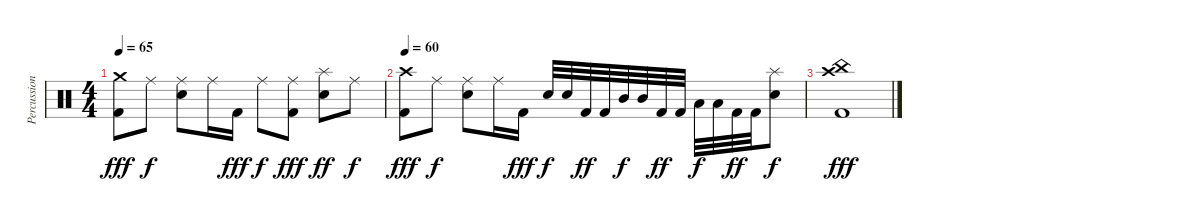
\track ("Percussion" "Percussion") {instrument percussion}
\staff {score}
\articulation defaults
\ts (4 4)
\tempo 65
\clef neutral
\ks c
("Crash medium (hit)" "Kick (hit) 2").8{dy fff} "Ride (middle)".8{dy f} ("Ride (middle)" "Electric Snare (hit)").8 "Ride (middle)".16 "Kick (hit) 2".16{dy fff} "Ride (middle)".8{dy f} ("Ride (middle)" "Kick (hit) 2").8{dy fff} ("Splash (hit)" "Electric Snare (hit)").8{dy ff} "Ride (middle)".8{dy f} |
\tempo 60
("Crash high (hit)" "Kick (hit) 2").8{dy fff} "Ride (middle)".8{dy f} ("Ride (middle)" "Electric Snare (hit)").8 "Ride (middle)".16 "Kick (hit) 2".16{dy fff} "Electric Snare (hit)".32{dy f} "Electric Snare (hit)".32 "Kick (hit) 2".32{dy ff} "Kick (hit) 2".32 "Mid Tom (hit)".32{dy f} "Mid Tom (hit)".32 "Kick (hit) 2".32{dy ff} "Kick (hit) 2".32 "Low Tom (hit)".32{dy f} "Low Tom (hit)".32 "Kick (hit) 2".32{dy ff} "Kick (hit) 2".32 ("Splash (hit)" "Electric Snare (hit)").8{dy f} |
("Crash high (hit)" "China (hit)" "Kick (hit) 2").1{dy fff}
